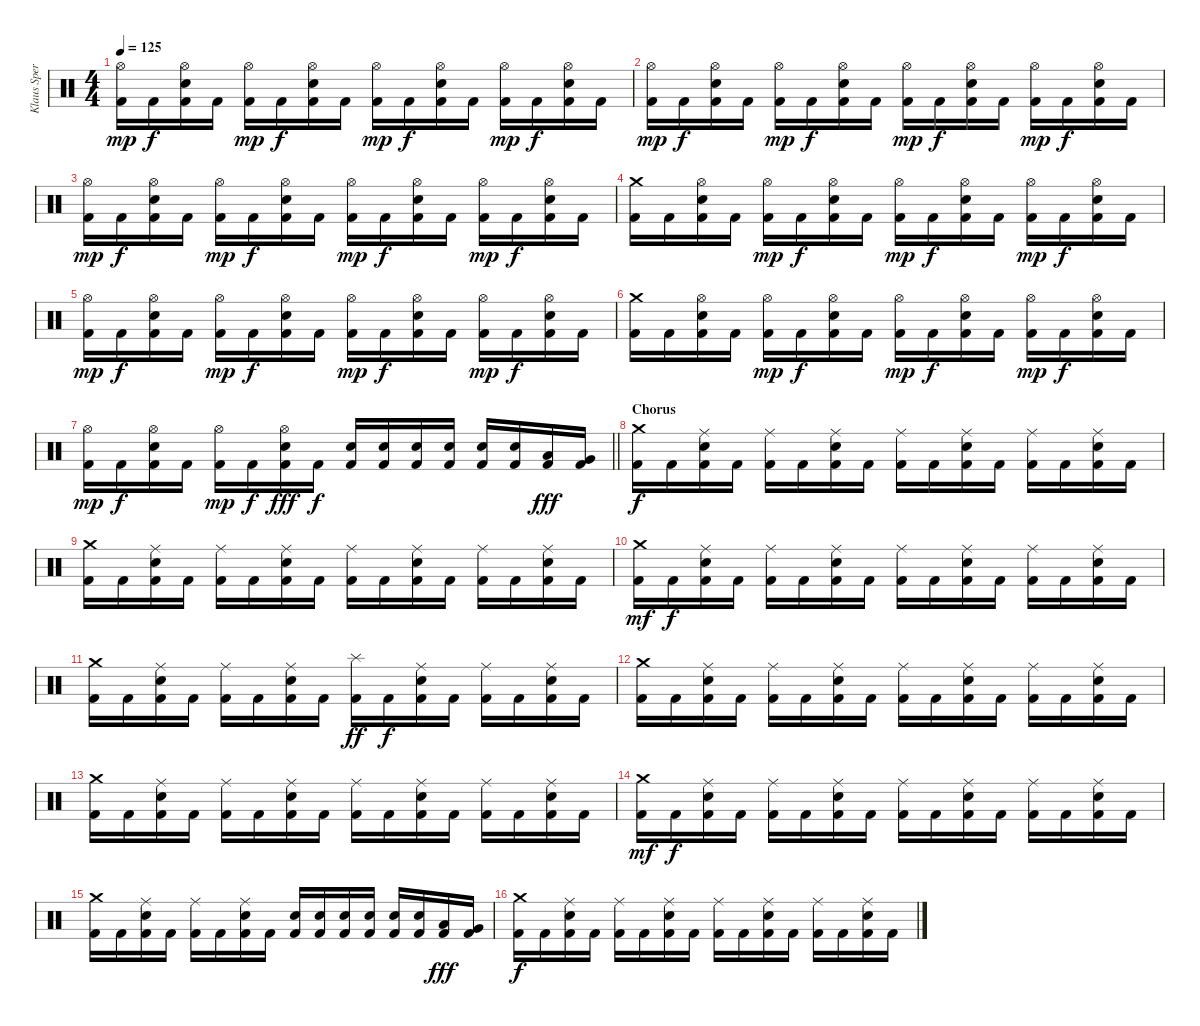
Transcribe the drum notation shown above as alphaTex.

\track ("Klaus Sperling" "Klaus Sper") {instrument percussion}
\staff {score}
\articulation defaults
\ts (4 4)
\tempo 125
\clef neutral
\ks c
("Hi-Hat (open)" "Kick (hit) 2").16{dy mp} "Kick (hit) 2".16{dy f} ("Hi-Hat (open)" "Electric Snare (hit)" "Kick (hit) 2").16 "Kick (hit) 2".16 ("Hi-Hat (open)" "Kick (hit) 2").16{dy mp} "Kick (hit) 2".16{dy f} ("Hi-Hat (open)" "Electric Snare (hit)" "Kick (hit) 2").16 "Kick (hit) 2".16 ("Hi-Hat (open)" "Kick (hit) 2").16{dy mp} "Kick (hit) 2".16{dy f} ("Hi-Hat (open)" "Electric Snare (hit)" "Kick (hit) 2").16 "Kick (hit) 2".16 ("Hi-Hat (open)" "Kick (hit) 2").16{dy mp} "Kick (hit) 2".16{dy f} ("Hi-Hat (open)" "Electric Snare (hit)" "Kick (hit) 2").16 "Kick (hit) 2".16 |
("Hi-Hat (open)" "Kick (hit) 2").16{dy mp} "Kick (hit) 2".16{dy f} ("Hi-Hat (open)" "Electric Snare (hit)" "Kick (hit) 2").16 "Kick (hit) 2".16 ("Hi-Hat (open)" "Kick (hit) 2").16{dy mp} "Kick (hit) 2".16{dy f} ("Hi-Hat (open)" "Electric Snare (hit)" "Kick (hit) 2").16 "Kick (hit) 2".16 ("Hi-Hat (open)" "Kick (hit) 2").16{dy mp} "Kick (hit) 2".16{dy f} ("Hi-Hat (open)" "Electric Snare (hit)" "Kick (hit) 2").16 "Kick (hit) 2".16 ("Hi-Hat (open)" "Kick (hit) 2").16{dy mp} "Kick (hit) 2".16{dy f} ("Hi-Hat (open)" "Electric Snare (hit)" "Kick (hit) 2").16 "Kick (hit) 2".16 |
("Hi-Hat (open)" "Kick (hit) 2").16{dy mp} "Kick (hit) 2".16{dy f} ("Hi-Hat (open)" "Electric Snare (hit)" "Kick (hit) 2").16 "Kick (hit) 2".16 ("Hi-Hat (open)" "Kick (hit) 2").16{dy mp} "Kick (hit) 2".16{dy f} ("Hi-Hat (open)" "Electric Snare (hit)" "Kick (hit) 2").16 "Kick (hit) 2".16 ("Hi-Hat (open)" "Kick (hit) 2").16{dy mp} "Kick (hit) 2".16{dy f} ("Hi-Hat (open)" "Electric Snare (hit)" "Kick (hit) 2").16 "Kick (hit) 2".16 ("Hi-Hat (open)" "Kick (hit) 2").16{dy mp} "Kick (hit) 2".16{dy f} ("Hi-Hat (open)" "Electric Snare (hit)" "Kick (hit) 2").16 "Kick (hit) 2".16 |
("Crash medium (hit)" "Kick (hit) 2").16 "Kick (hit) 2".16 ("Hi-Hat (open)" "Electric Snare (hit)" "Kick (hit) 2").16 "Kick (hit) 2".16 ("Hi-Hat (open)" "Kick (hit) 2").16{dy mp} "Kick (hit) 2".16{dy f} ("Hi-Hat (open)" "Electric Snare (hit)" "Kick (hit) 2").16 "Kick (hit) 2".16 ("Hi-Hat (open)" "Kick (hit) 2").16{dy mp} "Kick (hit) 2".16{dy f} ("Hi-Hat (open)" "Electric Snare (hit)" "Kick (hit) 2").16 "Kick (hit) 2".16 ("Hi-Hat (open)" "Kick (hit) 2").16{dy mp} "Kick (hit) 2".16{dy f} ("Hi-Hat (open)" "Electric Snare (hit)" "Kick (hit) 2").16 "Kick (hit) 2".16 |
("Hi-Hat (open)" "Kick (hit) 2").16{dy mp} "Kick (hit) 2".16{dy f} ("Hi-Hat (open)" "Electric Snare (hit)" "Kick (hit) 2").16 "Kick (hit) 2".16 ("Hi-Hat (open)" "Kick (hit) 2").16{dy mp} "Kick (hit) 2".16{dy f} ("Hi-Hat (open)" "Electric Snare (hit)" "Kick (hit) 2").16 "Kick (hit) 2".16 ("Hi-Hat (open)" "Kick (hit) 2").16{dy mp} "Kick (hit) 2".16{dy f} ("Hi-Hat (open)" "Electric Snare (hit)" "Kick (hit) 2").16 "Kick (hit) 2".16 ("Hi-Hat (open)" "Kick (hit) 2").16{dy mp} "Kick (hit) 2".16{dy f} ("Hi-Hat (open)" "Electric Snare (hit)" "Kick (hit) 2").16 "Kick (hit) 2".16 |
("Crash medium (hit)" "Kick (hit) 2").16 "Kick (hit) 2".16 ("Hi-Hat (open)" "Electric Snare (hit)" "Kick (hit) 2").16 "Kick (hit) 2".16 ("Hi-Hat (open)" "Kick (hit) 2").16{dy mp} "Kick (hit) 2".16{dy f} ("Hi-Hat (open)" "Electric Snare (hit)" "Kick (hit) 2").16 "Kick (hit) 2".16 ("Hi-Hat (open)" "Kick (hit) 2").16{dy mp} "Kick (hit) 2".16{dy f} ("Hi-Hat (open)" "Electric Snare (hit)" "Kick (hit) 2").16 "Kick (hit) 2".16 ("Hi-Hat (open)" "Kick (hit) 2").16{dy mp} "Kick (hit) 2".16{dy f} ("Hi-Hat (open)" "Electric Snare (hit)" "Kick (hit) 2").16 "Kick (hit) 2".16 |
\barLineRight lightlight
("Hi-Hat (open)" "Kick (hit) 2").16{dy mp} "Kick (hit) 2".16{dy f} ("Hi-Hat (open)" "Electric Snare (hit)" "Kick (hit) 2").16 "Kick (hit) 2".16 ("Hi-Hat (open)" "Kick (hit) 2").16{dy mp} "Kick (hit) 2".16{dy f} ("Hi-Hat (open)" "Electric Snare (hit)" "Kick (hit) 2").16{dy fff} "Kick (hit) 2".16{dy f} ("Electric Snare (hit)" "Kick (hit) 2").16 ("Electric Snare (hit)" "Kick (hit) 2").16 ("Electric Snare (hit)" "Kick (hit) 2").16 ("Electric Snare (hit)" "Kick (hit) 2").16 ("Electric Snare (hit)" "Kick (hit) 2").16 ("Electric Snare (hit)" "Kick (hit) 2").16 ("Low Tom (hit)" "Kick (hit) 2").16{dy fff} ("Very Low Tom (hit)" "Kick (hit) 2").16 |
\section ("" "Chorus")
("Crash medium (hit)" "Kick (hit) 2").16{dy f} "Kick (hit) 2".16 ("Ride (middle)" "Electric Snare (hit)" "Kick (hit) 2").16 "Kick (hit) 2".16 ("Ride (middle)" "Kick (hit) 2").16 "Kick (hit) 2".16 ("Ride (middle)" "Electric Snare (hit)" "Kick (hit) 2").16 "Kick (hit) 2".16 ("Ride (middle)" "Kick (hit) 2").16 "Kick (hit) 2".16 ("Ride (middle)" "Electric Snare (hit)" "Kick (hit) 2").16 "Kick (hit) 2".16 ("Ride (middle)" "Kick (hit) 2").16 "Kick (hit) 2".16 ("Ride (middle)" "Electric Snare (hit)" "Kick (hit) 2").16 "Kick (hit) 2".16 |
("Crash medium (hit)" "Kick (hit) 2").16 "Kick (hit) 2".16 ("Ride (middle)" "Electric Snare (hit)" "Kick (hit) 2").16 "Kick (hit) 2".16 ("Ride (middle)" "Kick (hit) 2").16 "Kick (hit) 2".16 ("Ride (middle)" "Electric Snare (hit)" "Kick (hit) 2").16 "Kick (hit) 2".16 ("Ride (middle)" "Kick (hit) 2").16 "Kick (hit) 2".16 ("Ride (middle)" "Electric Snare (hit)" "Kick (hit) 2").16 "Kick (hit) 2".16 ("Ride (middle)" "Kick (hit) 2").16 "Kick (hit) 2".16 ("Ride (middle)" "Electric Snare (hit)" "Kick (hit) 2").16 "Kick (hit) 2".16 |
("Crash medium (hit)" "Kick (hit) 2").16{dy mf} "Kick (hit) 2".16{dy f} ("Ride (middle)" "Electric Snare (hit)" "Kick (hit) 2").16 "Kick (hit) 2".16 ("Ride (middle)" "Kick (hit) 2").16 "Kick (hit) 2".16 ("Ride (middle)" "Electric Snare (hit)" "Kick (hit) 2").16 "Kick (hit) 2".16 ("Ride (middle)" "Kick (hit) 2").16 "Kick (hit) 2".16 ("Ride (middle)" "Electric Snare (hit)" "Kick (hit) 2").16 "Kick (hit) 2".16 ("Ride (middle)" "Kick (hit) 2").16 "Kick (hit) 2".16 ("Ride (middle)" "Electric Snare (hit)" "Kick (hit) 2").16 "Kick (hit) 2".16 |
("Crash medium (hit)" "Kick (hit) 2").16 "Kick (hit) 2".16 ("Ride (middle)" "Electric Snare (hit)" "Kick (hit) 2").16 "Kick (hit) 2".16 ("Ride (middle)" "Kick (hit) 2").16 "Kick (hit) 2".16 ("Ride (middle)" "Electric Snare (hit)" "Kick (hit) 2").16 "Kick (hit) 2".16 ("Splash (hit)" "Kick (hit) 2").16{dy ff} "Kick (hit) 2".16{dy f} ("Ride (middle)" "Electric Snare (hit)" "Kick (hit) 2").16 "Kick (hit) 2".16 ("Ride (middle)" "Kick (hit) 2").16 "Kick (hit) 2".16 ("Ride (middle)" "Electric Snare (hit)" "Kick (hit) 2").16 "Kick (hit) 2".16 |
("Crash medium (hit)" "Kick (hit) 2").16 "Kick (hit) 2".16 ("Ride (middle)" "Electric Snare (hit)" "Kick (hit) 2").16 "Kick (hit) 2".16 ("Ride (middle)" "Kick (hit) 2").16 "Kick (hit) 2".16 ("Ride (middle)" "Electric Snare (hit)" "Kick (hit) 2").16 "Kick (hit) 2".16 ("Ride (middle)" "Kick (hit) 2").16 "Kick (hit) 2".16 ("Ride (middle)" "Electric Snare (hit)" "Kick (hit) 2").16 "Kick (hit) 2".16 ("Ride (middle)" "Kick (hit) 2").16 "Kick (hit) 2".16 ("Ride (middle)" "Electric Snare (hit)" "Kick (hit) 2").16 "Kick (hit) 2".16 |
("Crash medium (hit)" "Kick (hit) 2").16 "Kick (hit) 2".16 ("Ride (middle)" "Electric Snare (hit)" "Kick (hit) 2").16 "Kick (hit) 2".16 ("Ride (middle)" "Kick (hit) 2").16 "Kick (hit) 2".16 ("Ride (middle)" "Electric Snare (hit)" "Kick (hit) 2").16 "Kick (hit) 2".16 ("Ride (middle)" "Kick (hit) 2").16 "Kick (hit) 2".16 ("Ride (middle)" "Electric Snare (hit)" "Kick (hit) 2").16 "Kick (hit) 2".16 ("Ride (middle)" "Kick (hit) 2").16 "Kick (hit) 2".16 ("Ride (middle)" "Electric Snare (hit)" "Kick (hit) 2").16 "Kick (hit) 2".16 |
("Crash medium (hit)" "Kick (hit) 2").16{dy mf} "Kick (hit) 2".16{dy f} ("Ride (middle)" "Electric Snare (hit)" "Kick (hit) 2").16 "Kick (hit) 2".16 ("Ride (middle)" "Kick (hit) 2").16 "Kick (hit) 2".16 ("Ride (middle)" "Electric Snare (hit)" "Kick (hit) 2").16 "Kick (hit) 2".16 ("Ride (middle)" "Kick (hit) 2").16 "Kick (hit) 2".16 ("Ride (middle)" "Electric Snare (hit)" "Kick (hit) 2").16 "Kick (hit) 2".16 ("Ride (middle)" "Kick (hit) 2").16 "Kick (hit) 2".16 ("Ride (middle)" "Electric Snare (hit)" "Kick (hit) 2").16 "Kick (hit) 2".16 |
("Crash medium (hit)" "Kick (hit) 2").16 "Kick (hit) 2".16 ("Ride (middle)" "Electric Snare (hit)" "Kick (hit) 2").16 "Kick (hit) 2".16 ("Ride (middle)" "Kick (hit) 2").16 "Kick (hit) 2".16 ("Ride (middle)" "Electric Snare (hit)" "Kick (hit) 2").16 "Kick (hit) 2".16 ("Electric Snare (hit)" "Kick (hit) 2").16 ("Electric Snare (hit)" "Kick (hit) 2").16 ("Electric Snare (hit)" "Kick (hit) 2").16 ("Electric Snare (hit)" "Kick (hit) 2").16 ("Electric Snare (hit)" "Kick (hit) 2").16 ("Electric Snare (hit)" "Kick (hit) 2").16 ("Low Tom (hit)" "Kick (hit) 2").16{dy fff} ("Very Low Tom (hit)" "Kick (hit) 2").16 |
("Crash medium (hit)" "Kick (hit) 2").16{dy f} "Kick (hit) 2".16 ("Ride (middle)" "Electric Snare (hit)" "Kick (hit) 2").16 "Kick (hit) 2".16 ("Ride (middle)" "Kick (hit) 2").16 "Kick (hit) 2".16 ("Ride (middle)" "Electric Snare (hit)" "Kick (hit) 2").16 "Kick (hit) 2".16 ("Ride (middle)" "Kick (hit) 2").16 "Kick (hit) 2".16 ("Ride (middle)" "Electric Snare (hit)" "Kick (hit) 2").16 "Kick (hit) 2".16 ("Ride (middle)" "Kick (hit) 2").16 "Kick (hit) 2".16 ("Ride (middle)" "Electric Snare (hit)" "Kick (hit) 2").16 "Kick (hit) 2".16
